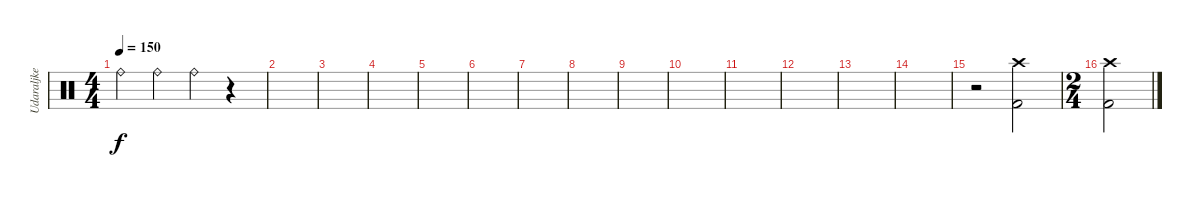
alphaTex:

\track ("Udaraljke" "Udaraljke") {instrument percussion}
\staff {score}
\articulation defaults
\ts (4 4)
\tempo 150
\clef neutral
\ks c "Ride (bell)".4{dy f} "Ride (bell)".4 "Ride (bell)".4
r.4 |
|
|
|
|
|
|
|
|
|
|
|
|
|
r.2 ("Kick (hit) 2" "Crash high (hit)").2 |
\ts (2 4)
("Crash high (hit)" "Kick (hit) 2").2
